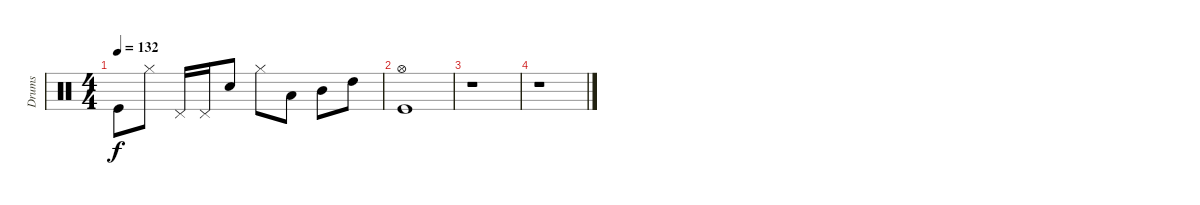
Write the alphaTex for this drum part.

\track ("Drums" "Drums") {instrument percussion}
\staff {score}
\articulation defaults
\ts (4 4)
\tempo 132
\clef neutral
\ks c "Kick (hit)".8{dy f} "Hi-Hat (closed)".8 "Pedal Hi-Hat (hit)".16 "Pedal Hi-Hat (hit)".16 "Snare (hit) 2".8 "Hi-Hat (closed)".8 "Low Tom (hit)".8 "Mid Tom (hit)".8 "High Tom (hit)".8
|
("Hi-Hat (open)" "Kick (hit)").1 |
r.1 |
r.1
